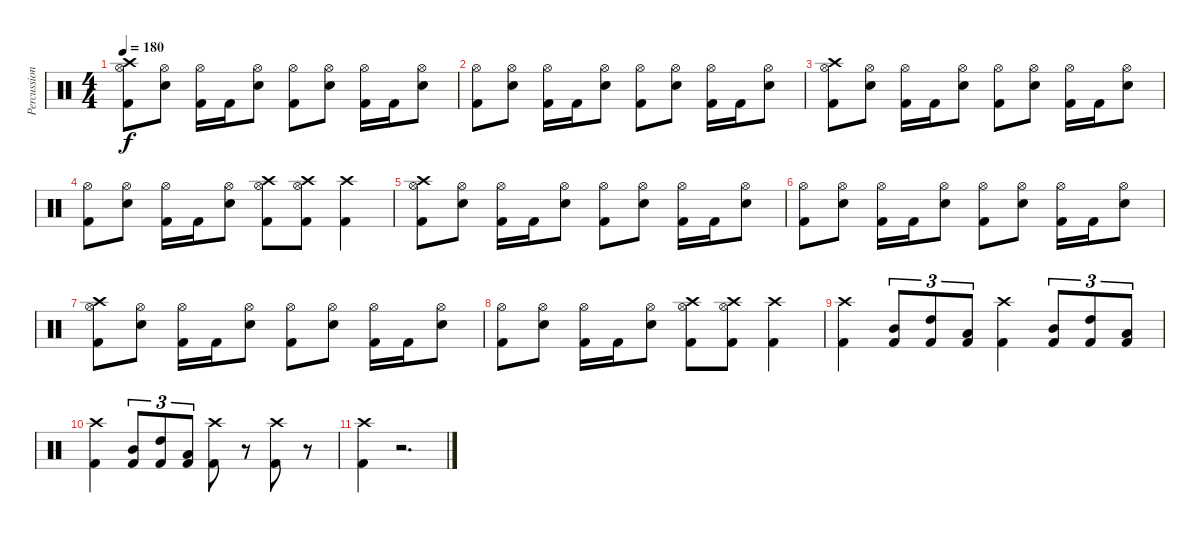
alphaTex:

\track ("Percussion" "Percussion") {instrument percussion}
\staff {score}
\articulation defaults
\ts (4 4)
\tempo 180
\clef neutral
\ks c
("Crash high (hit)" "Hi-Hat (open)" "Kick (hit) 2").8{dy f} ("Hi-Hat (open)" "Snare (hit) 2").8 ("Hi-Hat (open)" "Kick (hit) 2").16 "Kick (hit) 2".16 ("Hi-Hat (open)" "Snare (hit) 2").8 ("Hi-Hat (open)" "Kick (hit) 2").8 ("Hi-Hat (open)" "Snare (hit) 2").8 ("Hi-Hat (open)" "Kick (hit) 2").16 "Kick (hit) 2".16 ("Hi-Hat (open)" "Snare (hit) 2").8 |
("Hi-Hat (open)" "Kick (hit) 2").8 ("Hi-Hat (open)" "Snare (hit) 2").8 ("Hi-Hat (open)" "Kick (hit) 2").16 "Kick (hit) 2".16 ("Hi-Hat (open)" "Snare (hit) 2").8 ("Hi-Hat (open)" "Kick (hit) 2").8 ("Hi-Hat (open)" "Snare (hit) 2").8 ("Hi-Hat (open)" "Kick (hit) 2").16 "Kick (hit) 2".16 ("Hi-Hat (open)" "Snare (hit) 2").8 |
("Crash high (hit)" "Hi-Hat (open)" "Kick (hit) 2").8 ("Hi-Hat (open)" "Snare (hit) 2").8 ("Hi-Hat (open)" "Kick (hit) 2").16 "Kick (hit) 2".16 ("Hi-Hat (open)" "Snare (hit) 2").8 ("Hi-Hat (open)" "Kick (hit) 2").8 ("Hi-Hat (open)" "Snare (hit) 2").8 ("Hi-Hat (open)" "Kick (hit) 2").16 "Kick (hit) 2".16 ("Hi-Hat (open)" "Snare (hit) 2").8 |
("Hi-Hat (open)" "Kick (hit) 2").8 ("Hi-Hat (open)" "Snare (hit) 2").8 ("Hi-Hat (open)" "Kick (hit) 2").16 "Kick (hit) 2".16 ("Hi-Hat (open)" "Snare (hit) 2").8 ("Crash high (hit)" "Hi-Hat (open)" "Kick (hit) 2").8 ("Crash high (hit)" "Hi-Hat (open)" "Kick (hit) 2").8 ("Crash high (hit)" "Kick (hit) 2").4 |
("Crash high (hit)" "Hi-Hat (open)" "Kick (hit) 2").8 ("Hi-Hat (open)" "Snare (hit) 2").8 ("Hi-Hat (open)" "Kick (hit) 2").16 "Kick (hit) 2".16 ("Hi-Hat (open)" "Snare (hit) 2").8 ("Hi-Hat (open)" "Kick (hit) 2").8 ("Hi-Hat (open)" "Snare (hit) 2").8 ("Hi-Hat (open)" "Kick (hit) 2").16 "Kick (hit) 2".16 ("Hi-Hat (open)" "Snare (hit) 2").8 |
("Hi-Hat (open)" "Kick (hit) 2").8 ("Hi-Hat (open)" "Snare (hit) 2").8 ("Hi-Hat (open)" "Kick (hit) 2").16 "Kick (hit) 2".16 ("Hi-Hat (open)" "Snare (hit) 2").8 ("Hi-Hat (open)" "Kick (hit) 2").8 ("Hi-Hat (open)" "Snare (hit) 2").8 ("Hi-Hat (open)" "Kick (hit) 2").16 "Kick (hit) 2".16 ("Hi-Hat (open)" "Snare (hit) 2").8 |
("Crash high (hit)" "Hi-Hat (open)" "Kick (hit) 2").8 ("Hi-Hat (open)" "Snare (hit) 2").8 ("Hi-Hat (open)" "Kick (hit) 2").16 "Kick (hit) 2".16 ("Hi-Hat (open)" "Snare (hit) 2").8 ("Hi-Hat (open)" "Kick (hit) 2").8 ("Hi-Hat (open)" "Snare (hit) 2").8 ("Hi-Hat (open)" "Kick (hit) 2").16 "Kick (hit) 2".16 ("Hi-Hat (open)" "Snare (hit) 2").8 |
("Hi-Hat (open)" "Kick (hit) 2").8 ("Hi-Hat (open)" "Snare (hit) 2").8 ("Hi-Hat (open)" "Kick (hit) 2").16 "Kick (hit) 2".16 ("Hi-Hat (open)" "Snare (hit) 2").8 ("Crash high (hit)" "Hi-Hat (open)" "Kick (hit) 2").8 ("Crash high (hit)" "Hi-Hat (open)" "Kick (hit) 2").8 ("Crash high (hit)" "Kick (hit) 2").4 |
("Crash high (hit)" "Kick (hit) 2").4 ("Mid Tom (hit)" "Kick (hit) 2").8{tu (3 2)} ("High Tom (hit)" "Kick (hit) 2").8{tu (3 2)} ("Low Tom (hit)" "Kick (hit) 2").8{tu (3 2)} ("Crash high (hit)" "Kick (hit) 2").4 ("Mid Tom (hit)" "Kick (hit) 2").8{tu (3 2)} ("High Tom (hit)" "Kick (hit) 2").8{tu (3 2)} ("Low Tom (hit)" "Kick (hit) 2").8{tu (3 2)} |
("Crash high (hit)" "Kick (hit) 2").4 ("Mid Tom (hit)" "Kick (hit) 2").8{tu (3 2)} ("High Tom (hit)" "Kick (hit) 2").8{tu (3 2)} ("Low Tom (hit)" "Kick (hit) 2").8{tu (3 2)} ("Crash high (hit)" "Kick (hit) 2").8 r.8 ("Crash high (hit)" "Kick (hit) 2").8 r.8 |
("Crash high (hit)" "Kick (hit) 2").4 r.2{d}
